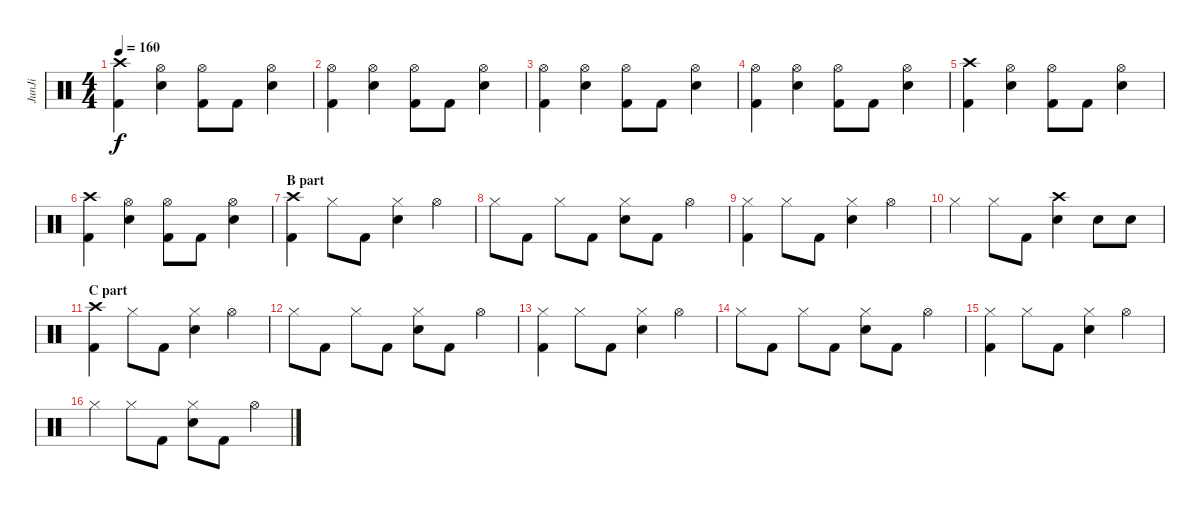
\track ("JunJi" "JunJi") {instrument percussion}
\staff {score}
\articulation defaults
\ts (4 4)
\tempo 160
\clef neutral
\ks c
("Crash high (hit)" "Kick (hit) 2").4{dy f} ("Hi-Hat (open)" "Snare (hit) 2").4 ("Hi-Hat (open)" "Kick (hit) 2").8 "Kick (hit) 2".8 ("Hi-Hat (open)" "Snare (hit) 2").4 |
("Hi-Hat (open)" "Kick (hit) 2").4 ("Hi-Hat (open)" "Snare (hit) 2").4 ("Hi-Hat (open)" "Kick (hit) 2").8 "Kick (hit) 2".8 ("Hi-Hat (open)" "Snare (hit) 2").4 |
("Hi-Hat (open)" "Kick (hit) 2").4 ("Hi-Hat (open)" "Snare (hit) 2").4 ("Hi-Hat (open)" "Kick (hit) 2").8 "Kick (hit) 2".8 ("Hi-Hat (open)" "Snare (hit) 2").4 |
("Hi-Hat (open)" "Kick (hit) 2").4 ("Hi-Hat (open)" "Snare (hit) 2").4 ("Hi-Hat (open)" "Kick (hit) 2").8 "Kick (hit) 2".8 ("Hi-Hat (open)" "Snare (hit) 2").4 |
("Crash high (hit)" "Kick (hit) 2").4 ("Hi-Hat (open)" "Snare (hit) 2").4 ("Hi-Hat (open)" "Kick (hit) 2").8 "Kick (hit) 2".8 ("Hi-Hat (open)" "Snare (hit) 2").4 |
("Crash high (hit)" "Kick (hit) 2").4 ("Hi-Hat (open)" "Snare (hit) 2").4 ("Hi-Hat (open)" "Kick (hit) 2").8 "Kick (hit) 2".8 ("Hi-Hat (open)" "Snare (hit) 2").4 |
\section ("" "B part")
("Crash high (hit)" "Kick (hit) 2").4 "Hi-Hat (closed)".8 "Kick (hit) 2".8 ("Hi-Hat (closed)" "Snare (hit) 2").4 "Hi-Hat (open)".4 |
"Hi-Hat (closed)".8 "Kick (hit) 2".8 "Hi-Hat (closed)".8 "Kick (hit) 2".8 ("Hi-Hat (closed)" "Snare (hit) 2").8 "Kick (hit) 2".8 "Hi-Hat (open)".4 |
("Hi-Hat (closed)" "Kick (hit) 2").4 "Hi-Hat (closed)".8 "Kick (hit) 2".8 ("Hi-Hat (closed)" "Snare (hit) 2").4 "Hi-Hat (open)".4 |
"Hi-Hat (closed)".4 "Hi-Hat (closed)".8 "Kick (hit) 2".8 ("Crash high (hit)" "Snare (hit) 2").4 "Snare (hit) 2".8 "Snare (hit) 2".8 |
\section ("" "C part")
("Crash high (hit)" "Kick (hit) 2").4 "Hi-Hat (closed)".8 "Kick (hit) 2".8 ("Hi-Hat (closed)" "Snare (hit) 2").4 "Hi-Hat (open)".4 |
"Hi-Hat (closed)".8 "Kick (hit) 2".8 "Hi-Hat (closed)".8 "Kick (hit) 2".8 ("Hi-Hat (closed)" "Snare (hit) 2").8 "Kick (hit) 2".8 "Hi-Hat (open)".4 |
("Hi-Hat (closed)" "Kick (hit) 2").4 "Hi-Hat (closed)".8 "Kick (hit) 2".8 ("Hi-Hat (closed)" "Snare (hit) 2").4 "Hi-Hat (open)".4 |
"Hi-Hat (closed)".8 "Kick (hit) 2".8 "Hi-Hat (closed)".8 "Kick (hit) 2".8 ("Hi-Hat (closed)" "Snare (hit) 2").8 "Kick (hit) 2".8 "Hi-Hat (open)".4 |
("Hi-Hat (closed)" "Kick (hit) 2").4 "Hi-Hat (closed)".8 "Kick (hit) 2".8 ("Hi-Hat (closed)" "Snare (hit) 2").4 "Hi-Hat (open)".4 |
"Hi-Hat (closed)".4 "Hi-Hat (closed)".8 "Kick (hit) 2".8 ("Hi-Hat (closed)" "Snare (hit) 2").8 "Kick (hit) 2".8 "Hi-Hat (open)".4
